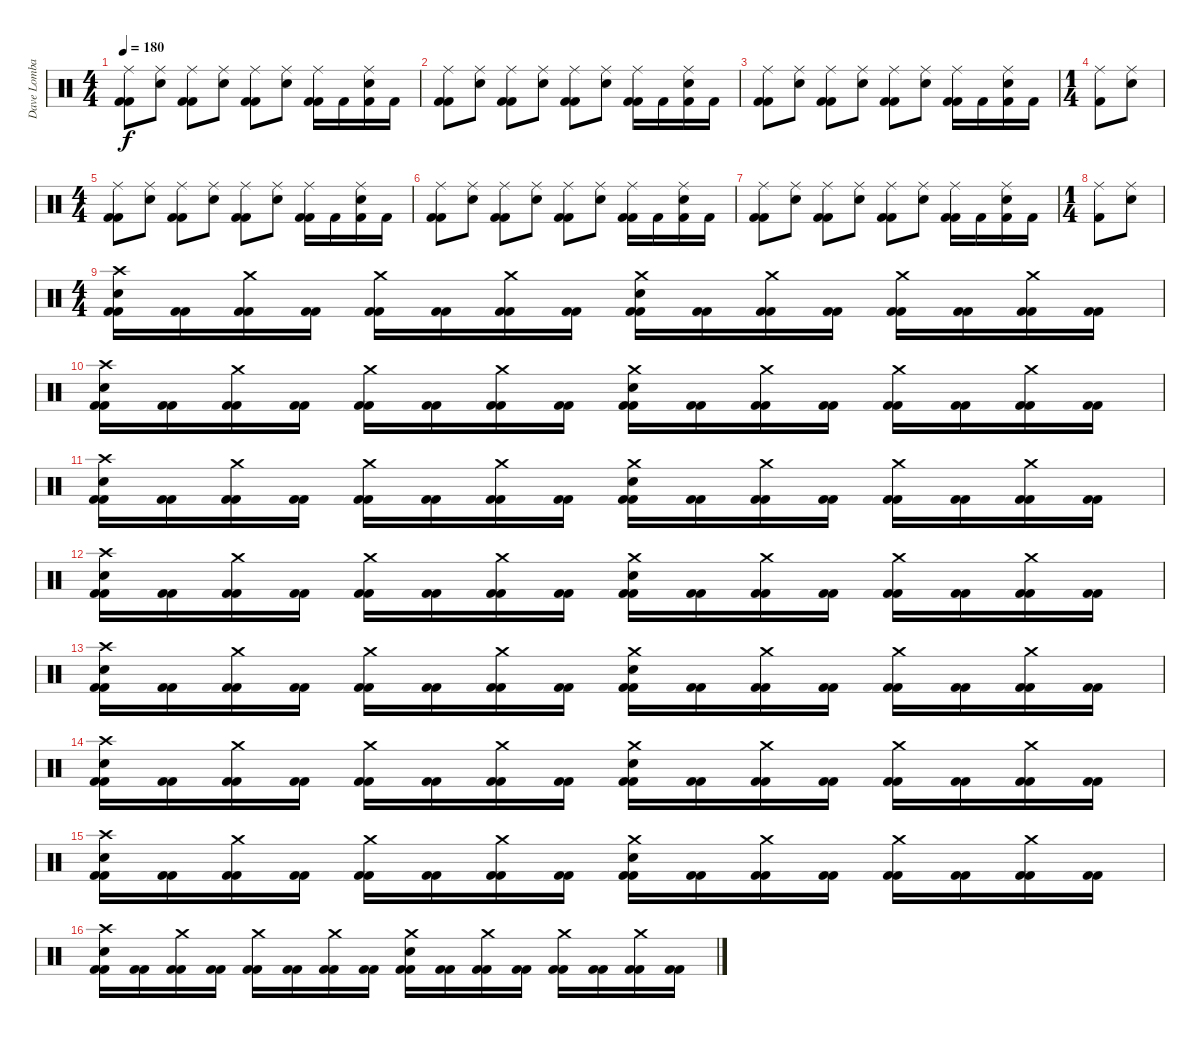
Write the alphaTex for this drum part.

\track ("Dave Lombardo" "Dave Lomba") {instrument percussion}
\staff {score}
\articulation defaults
\ts (4 4)
\tempo 180
\clef neutral
\ks c
("Ride (middle)" "Kick (hit) 2" "Kick (hit) 2").8{dy f} ("Ride (middle)" "Electric Snare (hit)").8 ("Ride (middle)" "Kick (hit) 2" "Kick (hit) 2").8 ("Ride (middle)" "Electric Snare (hit)").8 ("Ride (middle)" "Kick (hit) 2" "Kick (hit) 2").8 ("Ride (middle)" "Electric Snare (hit)").8 ("Ride (middle)" "Kick (hit) 2" "Kick (hit) 2").16 "Kick (hit) 2".16 ("Ride (middle)" "Electric Snare (hit)" "Kick (hit) 2").16 "Kick (hit) 2".16 |
("Ride (middle)" "Kick (hit) 2" "Kick (hit) 2").8 ("Ride (middle)" "Electric Snare (hit)").8 ("Ride (middle)" "Kick (hit) 2" "Kick (hit) 2").8 ("Ride (middle)" "Electric Snare (hit)").8 ("Ride (middle)" "Kick (hit) 2" "Kick (hit) 2").8 ("Ride (middle)" "Electric Snare (hit)").8 ("Ride (middle)" "Kick (hit) 2" "Kick (hit) 2").16 "Kick (hit) 2".16 ("Ride (middle)" "Electric Snare (hit)" "Kick (hit) 2").16 "Kick (hit) 2".16 |
("Ride (middle)" "Kick (hit) 2" "Kick (hit) 2").8 ("Ride (middle)" "Electric Snare (hit)").8 ("Ride (middle)" "Kick (hit) 2" "Kick (hit) 2").8 ("Ride (middle)" "Electric Snare (hit)").8 ("Ride (middle)" "Kick (hit) 2" "Kick (hit) 2").8 ("Ride (middle)" "Electric Snare (hit)").8 ("Ride (middle)" "Kick (hit) 2" "Kick (hit) 2").16 "Kick (hit) 2".16 ("Ride (middle)" "Electric Snare (hit)" "Kick (hit) 2").16 "Kick (hit) 2".16 |
\ts (1 4)
("Ride (middle)" "Kick (hit) 2").8 ("Ride (middle)" "Electric Snare (hit)").8 |
\ts (4 4)
("Ride (middle)" "Kick (hit) 2" "Kick (hit) 2").8 ("Ride (middle)" "Electric Snare (hit)").8 ("Ride (middle)" "Kick (hit) 2" "Kick (hit) 2").8 ("Ride (middle)" "Electric Snare (hit)").8 ("Ride (middle)" "Kick (hit) 2" "Kick (hit) 2").8 ("Ride (middle)" "Electric Snare (hit)").8 ("Ride (middle)" "Kick (hit) 2" "Kick (hit) 2").16 "Kick (hit) 2".16 ("Ride (middle)" "Electric Snare (hit)" "Kick (hit) 2").16 "Kick (hit) 2".16 |
("Ride (middle)" "Kick (hit) 2" "Kick (hit) 2").8 ("Ride (middle)" "Electric Snare (hit)").8 ("Ride (middle)" "Kick (hit) 2" "Kick (hit) 2").8 ("Ride (middle)" "Electric Snare (hit)").8 ("Ride (middle)" "Kick (hit) 2" "Kick (hit) 2").8 ("Ride (middle)" "Electric Snare (hit)").8 ("Ride (middle)" "Kick (hit) 2" "Kick (hit) 2").16 "Kick (hit) 2".16 ("Ride (middle)" "Electric Snare (hit)" "Kick (hit) 2").16 "Kick (hit) 2".16 |
("Ride (middle)" "Kick (hit) 2" "Kick (hit) 2").8 ("Ride (middle)" "Electric Snare (hit)").8 ("Ride (middle)" "Kick (hit) 2" "Kick (hit) 2").8 ("Ride (middle)" "Electric Snare (hit)").8 ("Ride (middle)" "Kick (hit) 2" "Kick (hit) 2").8 ("Ride (middle)" "Electric Snare (hit)").8 ("Ride (middle)" "Kick (hit) 2" "Kick (hit) 2").16 "Kick (hit) 2".16 ("Ride (middle)" "Electric Snare (hit)" "Kick (hit) 2").16 "Kick (hit) 2".16 |
\ts (1 4)
("Ride (middle)" "Kick (hit) 2").8 ("Ride (middle)" "Electric Snare (hit)").8 |
\ts (4 4)
("Crash high (hit)" "Electric Snare (hit)" "Kick (hit) 2" "Kick (hit) 2").16 ("Kick (hit) 2" "Kick (hit) 2").16 ("Crash medium (hit)" "Kick (hit) 2" "Kick (hit) 2").16 ("Kick (hit) 2" "Kick (hit) 2").16 ("Crash medium (hit)" "Kick (hit) 2" "Kick (hit) 2").16 ("Kick (hit) 2" "Kick (hit) 2").16 ("Crash medium (hit)" "Kick (hit) 2" "Kick (hit) 2").16 ("Kick (hit) 2" "Kick (hit) 2").16 ("Crash medium (hit)" "Electric Snare (hit)" "Kick (hit) 2" "Kick (hit) 2").16 ("Kick (hit) 2" "Kick (hit) 2").16 ("Crash medium (hit)" "Kick (hit) 2" "Kick (hit) 2").16 ("Kick (hit) 2" "Kick (hit) 2").16 ("Crash medium (hit)" "Kick (hit) 2" "Kick (hit) 2").16 ("Kick (hit) 2" "Kick (hit) 2").16 ("Crash medium (hit)" "Kick (hit) 2" "Kick (hit) 2").16 ("Kick (hit) 2" "Kick (hit) 2").16 |
("Crash high (hit)" "Electric Snare (hit)" "Kick (hit) 2" "Kick (hit) 2").16 ("Kick (hit) 2" "Kick (hit) 2").16 ("Crash medium (hit)" "Kick (hit) 2" "Kick (hit) 2").16 ("Kick (hit) 2" "Kick (hit) 2").16 ("Crash medium (hit)" "Kick (hit) 2" "Kick (hit) 2").16 ("Kick (hit) 2" "Kick (hit) 2").16 ("Crash medium (hit)" "Kick (hit) 2" "Kick (hit) 2").16 ("Kick (hit) 2" "Kick (hit) 2").16 ("Crash medium (hit)" "Electric Snare (hit)" "Kick (hit) 2" "Kick (hit) 2").16 ("Kick (hit) 2" "Kick (hit) 2").16 ("Crash medium (hit)" "Kick (hit) 2" "Kick (hit) 2").16 ("Kick (hit) 2" "Kick (hit) 2").16 ("Crash medium (hit)" "Kick (hit) 2" "Kick (hit) 2").16 ("Kick (hit) 2" "Kick (hit) 2").16 ("Crash medium (hit)" "Kick (hit) 2" "Kick (hit) 2").16 ("Kick (hit) 2" "Kick (hit) 2").16 |
("Crash high (hit)" "Electric Snare (hit)" "Kick (hit) 2" "Kick (hit) 2").16 ("Kick (hit) 2" "Kick (hit) 2").16 ("Crash medium (hit)" "Kick (hit) 2" "Kick (hit) 2").16 ("Kick (hit) 2" "Kick (hit) 2").16 ("Crash medium (hit)" "Kick (hit) 2" "Kick (hit) 2").16 ("Kick (hit) 2" "Kick (hit) 2").16 ("Crash medium (hit)" "Kick (hit) 2" "Kick (hit) 2").16 ("Kick (hit) 2" "Kick (hit) 2").16 ("Crash medium (hit)" "Electric Snare (hit)" "Kick (hit) 2" "Kick (hit) 2").16 ("Kick (hit) 2" "Kick (hit) 2").16 ("Crash medium (hit)" "Kick (hit) 2" "Kick (hit) 2").16 ("Kick (hit) 2" "Kick (hit) 2").16 ("Crash medium (hit)" "Kick (hit) 2" "Kick (hit) 2").16 ("Kick (hit) 2" "Kick (hit) 2").16 ("Crash medium (hit)" "Kick (hit) 2" "Kick (hit) 2").16 ("Kick (hit) 2" "Kick (hit) 2").16 |
("Crash high (hit)" "Electric Snare (hit)" "Kick (hit) 2" "Kick (hit) 2").16 ("Kick (hit) 2" "Kick (hit) 2").16 ("Crash medium (hit)" "Kick (hit) 2" "Kick (hit) 2").16 ("Kick (hit) 2" "Kick (hit) 2").16 ("Crash medium (hit)" "Kick (hit) 2" "Kick (hit) 2").16 ("Kick (hit) 2" "Kick (hit) 2").16 ("Crash medium (hit)" "Kick (hit) 2" "Kick (hit) 2").16 ("Kick (hit) 2" "Kick (hit) 2").16 ("Crash medium (hit)" "Electric Snare (hit)" "Kick (hit) 2" "Kick (hit) 2").16 ("Kick (hit) 2" "Kick (hit) 2").16 ("Crash medium (hit)" "Kick (hit) 2" "Kick (hit) 2").16 ("Kick (hit) 2" "Kick (hit) 2").16 ("Crash medium (hit)" "Kick (hit) 2" "Kick (hit) 2").16 ("Kick (hit) 2" "Kick (hit) 2").16 ("Crash medium (hit)" "Kick (hit) 2" "Kick (hit) 2").16 ("Kick (hit) 2" "Kick (hit) 2").16 |
("Crash high (hit)" "Electric Snare (hit)" "Kick (hit) 2" "Kick (hit) 2").16 ("Kick (hit) 2" "Kick (hit) 2").16 ("Crash medium (hit)" "Kick (hit) 2" "Kick (hit) 2").16 ("Kick (hit) 2" "Kick (hit) 2").16 ("Crash medium (hit)" "Kick (hit) 2" "Kick (hit) 2").16 ("Kick (hit) 2" "Kick (hit) 2").16 ("Crash medium (hit)" "Kick (hit) 2" "Kick (hit) 2").16 ("Kick (hit) 2" "Kick (hit) 2").16 ("Crash medium (hit)" "Electric Snare (hit)" "Kick (hit) 2" "Kick (hit) 2").16 ("Kick (hit) 2" "Kick (hit) 2").16 ("Crash medium (hit)" "Kick (hit) 2" "Kick (hit) 2").16 ("Kick (hit) 2" "Kick (hit) 2").16 ("Crash medium (hit)" "Kick (hit) 2" "Kick (hit) 2").16 ("Kick (hit) 2" "Kick (hit) 2").16 ("Crash medium (hit)" "Kick (hit) 2" "Kick (hit) 2").16 ("Kick (hit) 2" "Kick (hit) 2").16 |
("Crash high (hit)" "Electric Snare (hit)" "Kick (hit) 2" "Kick (hit) 2").16 ("Kick (hit) 2" "Kick (hit) 2").16 ("Crash medium (hit)" "Kick (hit) 2" "Kick (hit) 2").16 ("Kick (hit) 2" "Kick (hit) 2").16 ("Crash medium (hit)" "Kick (hit) 2" "Kick (hit) 2").16 ("Kick (hit) 2" "Kick (hit) 2").16 ("Crash medium (hit)" "Kick (hit) 2" "Kick (hit) 2").16 ("Kick (hit) 2" "Kick (hit) 2").16 ("Crash medium (hit)" "Electric Snare (hit)" "Kick (hit) 2" "Kick (hit) 2").16 ("Kick (hit) 2" "Kick (hit) 2").16 ("Crash medium (hit)" "Kick (hit) 2" "Kick (hit) 2").16 ("Kick (hit) 2" "Kick (hit) 2").16 ("Crash medium (hit)" "Kick (hit) 2" "Kick (hit) 2").16 ("Kick (hit) 2" "Kick (hit) 2").16 ("Crash medium (hit)" "Kick (hit) 2" "Kick (hit) 2").16 ("Kick (hit) 2" "Kick (hit) 2").16 |
("Crash high (hit)" "Electric Snare (hit)" "Kick (hit) 2" "Kick (hit) 2").16 ("Kick (hit) 2" "Kick (hit) 2").16 ("Crash medium (hit)" "Kick (hit) 2" "Kick (hit) 2").16 ("Kick (hit) 2" "Kick (hit) 2").16 ("Crash medium (hit)" "Kick (hit) 2" "Kick (hit) 2").16 ("Kick (hit) 2" "Kick (hit) 2").16 ("Crash medium (hit)" "Kick (hit) 2" "Kick (hit) 2").16 ("Kick (hit) 2" "Kick (hit) 2").16 ("Crash medium (hit)" "Electric Snare (hit)" "Kick (hit) 2" "Kick (hit) 2").16 ("Kick (hit) 2" "Kick (hit) 2").16 ("Crash medium (hit)" "Kick (hit) 2" "Kick (hit) 2").16 ("Kick (hit) 2" "Kick (hit) 2").16 ("Crash medium (hit)" "Kick (hit) 2" "Kick (hit) 2").16 ("Kick (hit) 2" "Kick (hit) 2").16 ("Crash medium (hit)" "Kick (hit) 2" "Kick (hit) 2").16 ("Kick (hit) 2" "Kick (hit) 2").16 |
("Crash high (hit)" "Electric Snare (hit)" "Kick (hit) 2" "Kick (hit) 2").16 ("Kick (hit) 2" "Kick (hit) 2").16 ("Crash medium (hit)" "Kick (hit) 2" "Kick (hit) 2").16 ("Kick (hit) 2" "Kick (hit) 2").16 ("Crash medium (hit)" "Kick (hit) 2" "Kick (hit) 2").16 ("Kick (hit) 2" "Kick (hit) 2").16 ("Crash medium (hit)" "Kick (hit) 2" "Kick (hit) 2").16 ("Kick (hit) 2" "Kick (hit) 2").16 ("Crash medium (hit)" "Electric Snare (hit)" "Kick (hit) 2" "Kick (hit) 2").16 ("Kick (hit) 2" "Kick (hit) 2").16 ("Crash medium (hit)" "Kick (hit) 2" "Kick (hit) 2").16 ("Kick (hit) 2" "Kick (hit) 2").16 ("Crash medium (hit)" "Kick (hit) 2" "Kick (hit) 2").16 ("Kick (hit) 2" "Kick (hit) 2").16 ("Crash medium (hit)" "Kick (hit) 2" "Kick (hit) 2").16 ("Kick (hit) 2" "Kick (hit) 2").16
